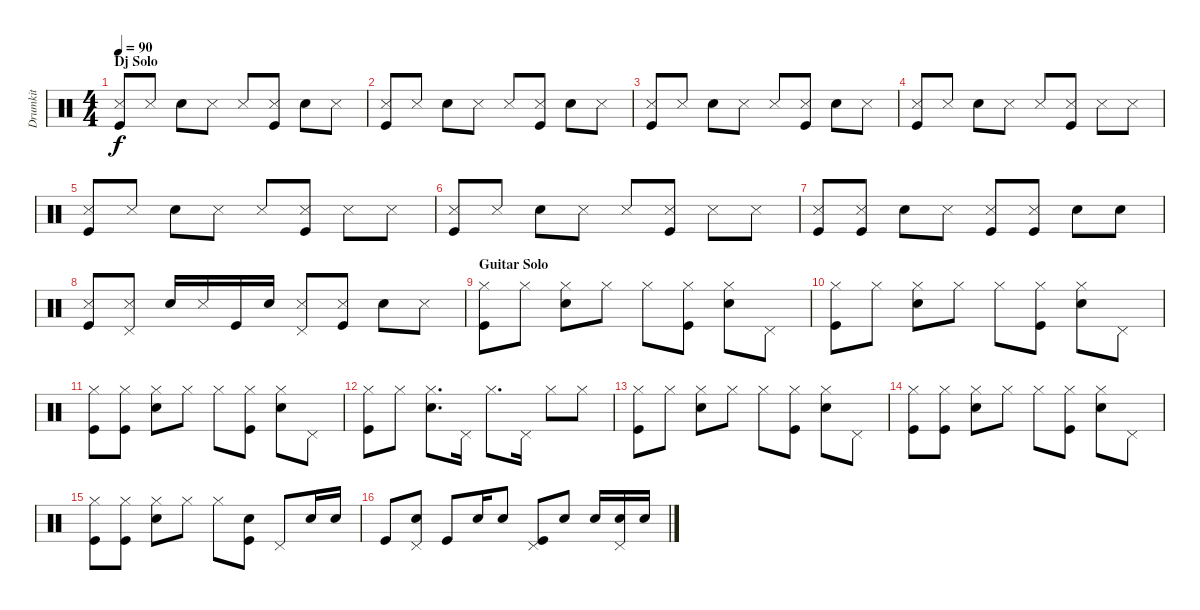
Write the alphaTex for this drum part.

\track ("Drumkit" "Drumkit") {instrument percussion}
\staff {score}
\articulation defaults
\ts (4 4)
\section ("" "Dj Solo")
\tempo 90
\clef neutral
\ks c
("Kick (hit)" "Snare (side stick) 3").8{dy f} "Snare (side stick) 3".8 "Snare (hit) 2".8 "Snare (side stick) 3".8 "Snare (side stick) 3".8 ("Kick (hit)" "Snare (side stick) 3").8 "Snare (hit) 2".8 "Snare (side stick) 3".8 |
("Kick (hit)" "Snare (side stick) 3").8 "Snare (side stick) 3".8 "Snare (hit) 2".8 "Snare (side stick) 3".8 "Snare (side stick) 3".8 ("Kick (hit)" "Snare (side stick) 3").8 "Snare (hit) 2".8 "Snare (side stick) 3".8 |
("Kick (hit)" "Snare (side stick) 3").8 "Snare (side stick) 3".8 "Snare (hit) 2".8 "Snare (side stick) 3".8 "Snare (side stick) 3".8 ("Kick (hit)" "Snare (side stick) 3").8 "Snare (hit) 2".8 "Snare (side stick) 3".8 |
("Kick (hit)" "Snare (side stick) 3").8 "Snare (side stick) 3".8 "Snare (hit) 2".8 "Snare (side stick) 3".8 "Snare (side stick) 3".8 ("Kick (hit)" "Snare (side stick) 3").8 "Snare (side stick) 3".8 "Snare (side stick) 3".8 |
("Kick (hit)" "Snare (side stick) 3").8 "Snare (side stick) 3".8 "Snare (hit) 2".8 "Snare (side stick) 3".8 "Snare (side stick) 3".8 ("Kick (hit)" "Snare (side stick) 3").8 "Snare (side stick) 3".8 "Snare (side stick) 3".8 |
("Kick (hit)" "Snare (side stick) 3").8 "Snare (side stick) 3".8 "Snare (hit) 2".8 "Snare (side stick) 3".8 "Snare (side stick) 3".8 ("Kick (hit)" "Snare (side stick) 3").8 "Snare (side stick) 3".8 "Snare (side stick) 3".8 |
("Kick (hit)" "Snare (side stick) 3").8 ("Kick (hit)" "Snare (side stick) 3").8 "Snare (hit) 2".8 "Snare (side stick) 3".8 ("Kick (hit)" "Snare (side stick) 3").8 ("Kick (hit)" "Snare (side stick) 3").8 "Snare (hit) 2".8 "Snare (hit) 2".8 |
("Kick (hit)" "Snare (side stick) 3").8 ("Pedal Hi-Hat (hit)" "Snare (side stick) 3").8 "Snare (hit) 2".16 "Snare (side stick) 3".16 "Kick (hit)".16 "Snare (hit) 2".16 ("Pedal Hi-Hat (hit)" "Snare (side stick) 3").8 ("Kick (hit)" "Snare (side stick) 3").8 "Snare (hit) 2".8 "Snare (side stick) 3".8 |
\section ("" "Guitar Solo")
("Kick (hit)" "Hi-Hat (closed)").8 "Hi-Hat (closed)".8 ("Snare (hit) 2" "Hi-Hat (closed)").8 "Hi-Hat (closed)".8 "Hi-Hat (closed)".8 ("Kick (hit)" "Hi-Hat (closed)").8 ("Snare (hit) 2" "Hi-Hat (closed)").8 "Pedal Hi-Hat (hit)".8 |
("Kick (hit)" "Hi-Hat (closed)").8 "Hi-Hat (closed)".8 ("Snare (hit) 2" "Hi-Hat (closed)").8 "Hi-Hat (closed)".8 "Hi-Hat (closed)".8 ("Kick (hit)" "Hi-Hat (closed)").8 ("Snare (hit) 2" "Hi-Hat (closed)").8 "Pedal Hi-Hat (hit)".8 |
("Kick (hit)" "Hi-Hat (closed)").8 ("Kick (hit)" "Hi-Hat (closed)").8 ("Snare (hit) 2" "Hi-Hat (closed)").8 "Hi-Hat (closed)".8 "Hi-Hat (closed)".8 ("Kick (hit)" "Hi-Hat (closed)").8 ("Snare (hit) 2" "Hi-Hat (closed)").8 "Pedal Hi-Hat (hit)".8 |
("Kick (hit)" "Hi-Hat (closed)").8 "Hi-Hat (closed)".8 ("Snare (hit) 2" "Hi-Hat (closed)").8{d} "Pedal Hi-Hat (hit)".16 "Hi-Hat (closed)".8{d} "Pedal Hi-Hat (hit)".16 "Hi-Hat (closed)".8 "Hi-Hat (closed)".8 |
("Kick (hit)" "Hi-Hat (closed)").8 "Hi-Hat (closed)".8 ("Snare (hit) 2" "Hi-Hat (closed)").8 "Hi-Hat (closed)".8 "Hi-Hat (closed)".8 ("Kick (hit)" "Hi-Hat (closed)").8 ("Snare (hit) 2" "Hi-Hat (closed)").8 "Pedal Hi-Hat (hit)".8 |
("Kick (hit)" "Hi-Hat (closed)").8 ("Kick (hit)" "Hi-Hat (closed)").8 ("Snare (hit) 2" "Hi-Hat (closed)").8 "Hi-Hat (closed)".8 "Hi-Hat (closed)".8 ("Kick (hit)" "Hi-Hat (closed)").8 ("Snare (hit) 2" "Hi-Hat (closed)").8 "Pedal Hi-Hat (hit)".8 |
("Kick (hit)" "Hi-Hat (closed)").8 ("Kick (hit)" "Hi-Hat (closed)").8 ("Snare (hit) 2" "Hi-Hat (closed)").8 "Hi-Hat (closed)".8 "Hi-Hat (closed)".8 ("Kick (hit)" "Snare (hit) 2").8 "Pedal Hi-Hat (hit)".8 "Snare (hit) 2".16 "Snare (hit) 2".16 |
"Kick (hit)".8 ("Snare (hit) 2" "Pedal Hi-Hat (hit)").8 "Kick (hit)".8 "Snare (hit) 2".16 "Snare (hit) 2".8 ("Kick (hit)" "Pedal Hi-Hat (hit)").8 "Snare (hit) 2".8 "Snare (hit) 2".16 ("Snare (hit) 2" "Pedal Hi-Hat (hit)").16 "Snare (hit) 2".16
